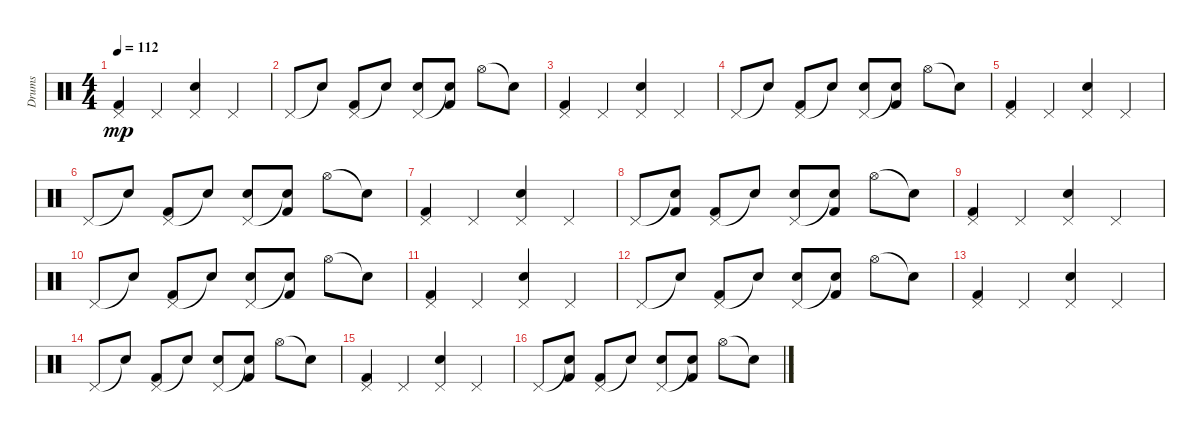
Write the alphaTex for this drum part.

\track ("Drums" "Drums") {instrument percussion}
\staff {score}
\articulation defaults
\ts (4 4)
\tempo 112
\clef neutral
\ks c
("Pedal Hi-Hat (hit)" "Kick (hit) 2").4{dy mp} "Pedal Hi-Hat (hit)".4 ("Pedal Hi-Hat (hit)" "Electric Snare (hit)").4 "Pedal Hi-Hat (hit)".4 |
"Pedal Hi-Hat (hit)".8 "Snare (hit)"{t}.8 ("Pedal Hi-Hat (hit)" "Kick (hit) 2").8 "Snare (hit)"{t}.8 ("Pedal Hi-Hat (hit)" "Electric Snare (hit)").8 ("Snare (hit)"{t} "Kick (hit) 2").8 "Hi-Hat (open)".8 "Snare (hit)"{t}.8 |
("Pedal Hi-Hat (hit)" "Kick (hit) 2").4 "Pedal Hi-Hat (hit)".4 ("Pedal Hi-Hat (hit)" "Electric Snare (hit)").4 "Pedal Hi-Hat (hit)".4 |
"Pedal Hi-Hat (hit)".8 "Snare (hit)"{t}.8 ("Pedal Hi-Hat (hit)" "Kick (hit) 2").8 "Snare (hit)"{t}.8 ("Pedal Hi-Hat (hit)" "Electric Snare (hit)").8 ("Snare (hit)"{t} "Kick (hit) 2").8 "Hi-Hat (open)".8 "Snare (hit)"{t}.8 |
("Pedal Hi-Hat (hit)" "Kick (hit) 2").4 "Pedal Hi-Hat (hit)".4 ("Pedal Hi-Hat (hit)" "Electric Snare (hit)").4 "Pedal Hi-Hat (hit)".4 |
"Pedal Hi-Hat (hit)".8 "Snare (hit)"{t}.8 ("Pedal Hi-Hat (hit)" "Kick (hit) 2").8 "Snare (hit)"{t}.8 ("Pedal Hi-Hat (hit)" "Electric Snare (hit)").8 ("Snare (hit)"{t} "Kick (hit) 2").8 "Hi-Hat (open)".8 "Snare (hit)"{t}.8 |
("Pedal Hi-Hat (hit)" "Kick (hit) 2").4 "Pedal Hi-Hat (hit)".4 ("Pedal Hi-Hat (hit)" "Electric Snare (hit)").4 "Pedal Hi-Hat (hit)".4 |
"Pedal Hi-Hat (hit)".8 ("Snare (hit)"{t} "Kick (hit) 2").8 ("Pedal Hi-Hat (hit)" "Kick (hit) 2").8 "Snare (hit)"{t}.8 ("Pedal Hi-Hat (hit)" "Electric Snare (hit)").8 ("Snare (hit)"{t} "Kick (hit) 2").8 "Hi-Hat (open)".8 "Snare (hit)"{t}.8 |
("Pedal Hi-Hat (hit)" "Kick (hit) 2").4 "Pedal Hi-Hat (hit)".4 ("Pedal Hi-Hat (hit)" "Electric Snare (hit)").4 "Pedal Hi-Hat (hit)".4 |
"Pedal Hi-Hat (hit)".8 "Snare (hit)"{t}.8 ("Pedal Hi-Hat (hit)" "Kick (hit) 2").8 "Snare (hit)"{t}.8 ("Pedal Hi-Hat (hit)" "Electric Snare (hit)").8 ("Snare (hit)"{t} "Kick (hit) 2").8 "Hi-Hat (open)".8 "Snare (hit)"{t}.8 |
("Pedal Hi-Hat (hit)" "Kick (hit) 2").4 "Pedal Hi-Hat (hit)".4 ("Pedal Hi-Hat (hit)" "Electric Snare (hit)").4 "Pedal Hi-Hat (hit)".4 |
"Pedal Hi-Hat (hit)".8 "Snare (hit)"{t}.8 ("Pedal Hi-Hat (hit)" "Kick (hit) 2").8 "Snare (hit)"{t}.8 ("Pedal Hi-Hat (hit)" "Electric Snare (hit)").8 ("Snare (hit)"{t} "Kick (hit) 2").8 "Hi-Hat (open)".8 "Snare (hit)"{t}.8 |
("Pedal Hi-Hat (hit)" "Kick (hit) 2").4 "Pedal Hi-Hat (hit)".4 ("Pedal Hi-Hat (hit)" "Electric Snare (hit)").4 "Pedal Hi-Hat (hit)".4 |
"Pedal Hi-Hat (hit)".8 "Snare (hit)"{t}.8 ("Pedal Hi-Hat (hit)" "Kick (hit) 2").8 "Snare (hit)"{t}.8 ("Pedal Hi-Hat (hit)" "Electric Snare (hit)").8 ("Snare (hit)"{t} "Kick (hit) 2").8 "Hi-Hat (open)".8 "Snare (hit)"{t}.8 |
("Pedal Hi-Hat (hit)" "Kick (hit) 2").4 "Pedal Hi-Hat (hit)".4 ("Pedal Hi-Hat (hit)" "Electric Snare (hit)").4 "Pedal Hi-Hat (hit)".4 |
"Pedal Hi-Hat (hit)".8 ("Snare (hit)"{t} "Kick (hit) 2").8 ("Pedal Hi-Hat (hit)" "Kick (hit) 2").8 "Snare (hit)"{t}.8 ("Pedal Hi-Hat (hit)" "Electric Snare (hit)").8 ("Snare (hit)"{t} "Kick (hit) 2").8 "Hi-Hat (open)".8 "Snare (hit)"{t}.8
